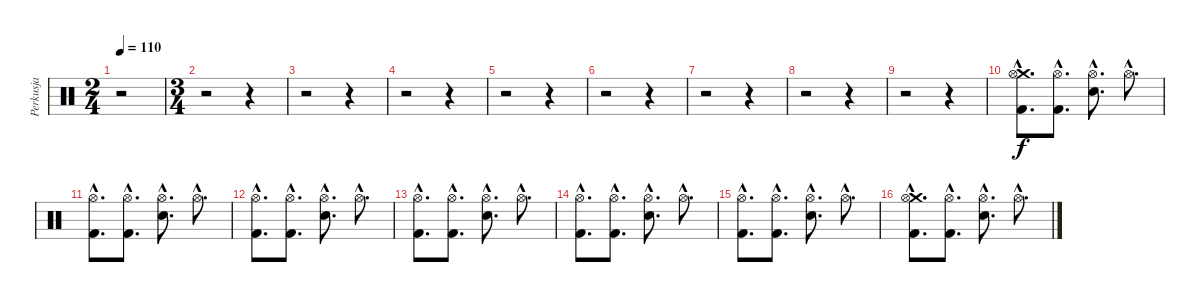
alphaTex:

\track ("Perkusja" "Perkusja") {instrument percussion}
\staff {score}
\articulation defaults
\ts (2 4)
\tempo 110
\clef neutral
\ks c
r.2{dy f} |
\ts (3 4)
r.2 r.4 |
r.2 r.4 |
r.2 r.4 |
r.2 r.4 |
r.2 r.4 |
r.2 r.4 |
r.2 r.4 |
r.2 r.4 |
("Kick (hit) 2"{hac} "Crash medium (hit)"{hac} "Hi-Hat (open)"{hac}).8{d} ("Kick (hit) 2"{hac} "Hi-Hat (open)"{hac}).8{d} ("Electric Snare (hit)"{hac} "Hi-Hat (open)"{hac}).8{d} "Hi-Hat (open)"{hac}.8{d} |
("Kick (hit) 2"{hac} "Hi-Hat (open)"{hac}).8{d} ("Kick (hit) 2"{hac} "Hi-Hat (open)"{hac}).8{d} ("Electric Snare (hit)"{hac} "Hi-Hat (open)"{hac}).8{d} "Hi-Hat (open)"{hac}.8{d} |
("Kick (hit) 2"{hac} "Hi-Hat (open)"{hac}).8{d} ("Kick (hit) 2"{hac} "Hi-Hat (open)"{hac}).8{d} ("Electric Snare (hit)"{hac} "Hi-Hat (open)"{hac}).8{d} "Hi-Hat (open)"{hac}.8{d} |
("Kick (hit) 2"{hac} "Hi-Hat (open)"{hac}).8{d} ("Kick (hit) 2"{hac} "Hi-Hat (open)"{hac}).8{d} ("Electric Snare (hit)"{hac} "Hi-Hat (open)"{hac}).8{d} "Hi-Hat (open)"{hac}.8{d} |
("Kick (hit) 2"{hac} "Hi-Hat (open)"{hac}).8{d} ("Kick (hit) 2"{hac} "Hi-Hat (open)"{hac}).8{d} ("Electric Snare (hit)"{hac} "Hi-Hat (open)"{hac}).8{d} "Hi-Hat (open)"{hac}.8{d} |
("Kick (hit) 2"{hac} "Hi-Hat (open)"{hac}).8{d} ("Kick (hit) 2"{hac} "Hi-Hat (open)"{hac}).8{d} ("Electric Snare (hit)"{hac} "Hi-Hat (open)"{hac}).8{d} "Hi-Hat (open)"{hac}.8{d} |
("Kick (hit) 2"{hac} "Crash medium (hit)"{hac} "Hi-Hat (open)"{hac}).8{d} ("Kick (hit) 2"{hac} "Hi-Hat (open)"{hac}).8{d} ("Electric Snare (hit)"{hac} "Hi-Hat (open)"{hac}).8{d} "Hi-Hat (open)"{hac}.8{d}
